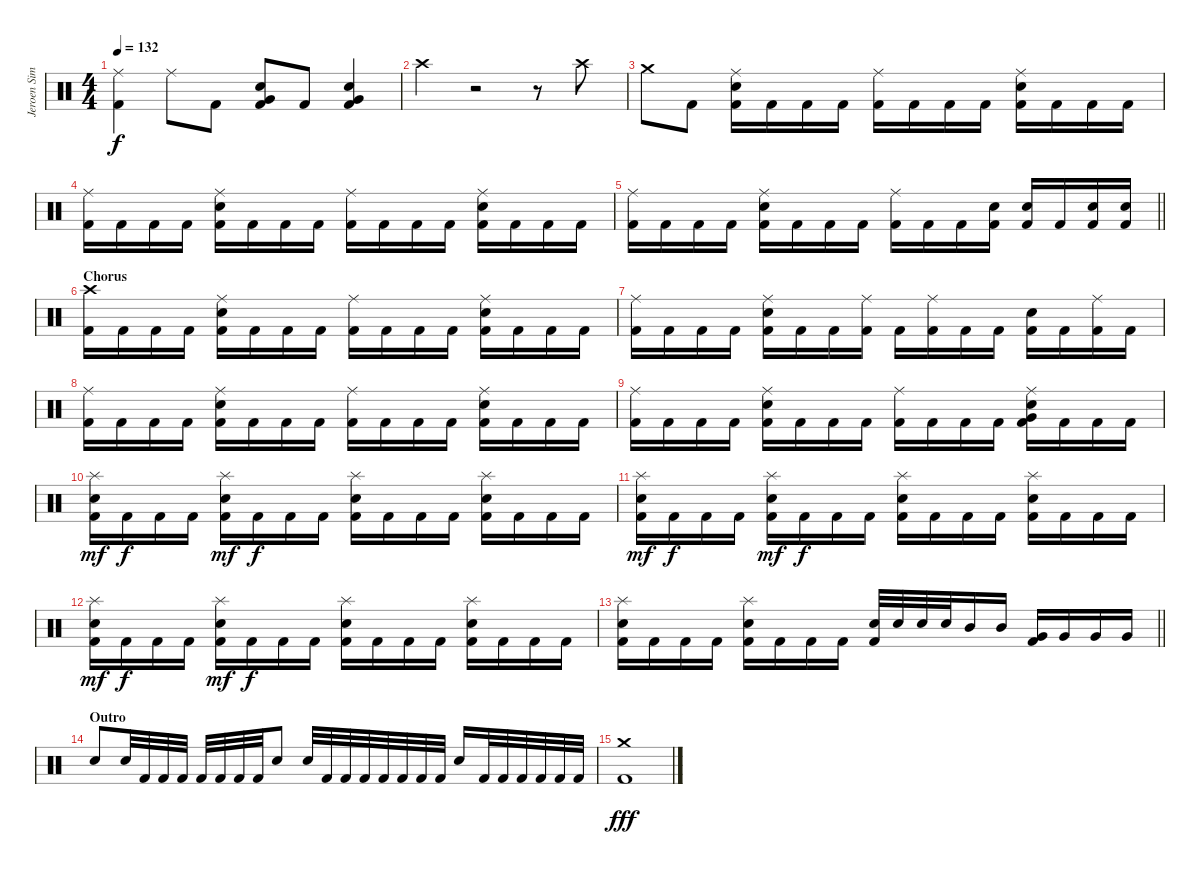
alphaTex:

\track ("Jeroen Simons" "Jeroen Sim") {instrument percussion}
\staff {score}
\articulation defaults
\ts (4 4)
\tempo 132
\clef neutral
\ks c
("Ride (middle)" "Kick (hit) 2").4{dy f} "Ride (middle)".8 "Kick (hit) 2".8 ("Very Low Tom (hit)" "Electric Snare (hit)" "Kick (hit) 2").8 "Kick (hit) 2".8 ("Very Low Tom (hit)" "Electric Snare (hit)" "Kick (hit) 2").4 |
"Crash high (hit)".4 r.2 r.8 "Crash high (hit)".8 |
"Crash medium (hit)".8 "Kick (hit) 2".8 ("Ride (middle)" "Electric Snare (hit)" "Kick (hit) 2").16 "Kick (hit) 2".16 "Kick (hit) 2".16 "Kick (hit) 2".16 ("Ride (middle)" "Kick (hit) 2").16 "Kick (hit) 2".16 "Kick (hit) 2".16 "Kick (hit) 2".16 ("Ride (middle)" "Electric Snare (hit)" "Kick (hit) 2").16 "Kick (hit) 2".16 "Kick (hit) 2".16 "Kick (hit) 2".16 |
("Ride (middle)" "Kick (hit) 2").16 "Kick (hit) 2".16 "Kick (hit) 2".16 "Kick (hit) 2".16 ("Ride (middle)" "Electric Snare (hit)" "Kick (hit) 2").16 "Kick (hit) 2".16 "Kick (hit) 2".16 "Kick (hit) 2".16 ("Ride (middle)" "Kick (hit) 2").16 "Kick (hit) 2".16 "Kick (hit) 2".16 "Kick (hit) 2".16 ("Ride (middle)" "Electric Snare (hit)" "Kick (hit) 2").16 "Kick (hit) 2".16 "Kick (hit) 2".16 "Kick (hit) 2".16 |
\barLineRight lightlight
("Ride (middle)" "Kick (hit) 2").16 "Kick (hit) 2".16 "Kick (hit) 2".16 "Kick (hit) 2".16 ("Ride (middle)" "Electric Snare (hit)" "Kick (hit) 2").16 "Kick (hit) 2".16 "Kick (hit) 2".16 "Kick (hit) 2".16 ("Ride (middle)" "Kick (hit) 2").16 "Kick (hit) 2".16 "Kick (hit) 2".16 ("Electric Snare (hit)" "Kick (hit) 2").16 ("Electric Snare (hit)" "Kick (hit) 2").16 "Kick (hit) 2".16 ("Electric Snare (hit)" "Kick (hit) 2").16 ("Electric Snare (hit)" "Kick (hit) 2").16 |
\section ("" "Chorus")
("Crash high (hit)" "Kick (hit) 2").16 "Kick (hit) 2".16 "Kick (hit) 2".16 "Kick (hit) 2".16 ("Ride (middle)" "Electric Snare (hit)" "Kick (hit) 2").16 "Kick (hit) 2".16 "Kick (hit) 2".16 "Kick (hit) 2".16 ("Ride (middle)" "Kick (hit) 2").16 "Kick (hit) 2".16 "Kick (hit) 2".16 "Kick (hit) 2".16 ("Ride (middle)" "Electric Snare (hit)" "Kick (hit) 2").16 "Kick (hit) 2".16 "Kick (hit) 2".16 "Kick (hit) 2".16 |
("Ride (middle)" "Kick (hit) 2").16 "Kick (hit) 2".16 "Kick (hit) 2".16 "Kick (hit) 2".16 ("Ride (middle)" "Electric Snare (hit)" "Kick (hit) 2").16 "Kick (hit) 2".16 "Kick (hit) 2".16 ("Ride (middle)" "Kick (hit) 2").16 "Kick (hit) 2".16 ("Ride (middle)" "Kick (hit) 2").16 "Kick (hit) 2".16 "Kick (hit) 2".16 ("Electric Snare (hit)" "Kick (hit) 2").16 "Kick (hit) 2".16 ("Ride (middle)" "Kick (hit) 2").16 "Kick (hit) 2".16 |
("Ride (middle)" "Kick (hit) 2").16 "Kick (hit) 2".16 "Kick (hit) 2".16 "Kick (hit) 2".16 ("Ride (middle)" "Electric Snare (hit)" "Kick (hit) 2").16 "Kick (hit) 2".16 "Kick (hit) 2".16 "Kick (hit) 2".16 ("Ride (middle)" "Kick (hit) 2").16 "Kick (hit) 2".16 "Kick (hit) 2".16 "Kick (hit) 2".16 ("Ride (middle)" "Electric Snare (hit)" "Kick (hit) 2").16 "Kick (hit) 2".16 "Kick (hit) 2".16 "Kick (hit) 2".16 |
("Ride (middle)" "Kick (hit) 2").16 "Kick (hit) 2".16 "Kick (hit) 2".16 "Kick (hit) 2".16 ("Ride (middle)" "Electric Snare (hit)" "Kick (hit) 2").16 "Kick (hit) 2".16 "Kick (hit) 2".16 "Kick (hit) 2".16 ("Ride (middle)" "Kick (hit) 2").16 "Kick (hit) 2".16 "Kick (hit) 2".16 "Kick (hit) 2".16 ("Ride (middle)" "Very Low Tom (hit)" "Electric Snare (hit)" "Kick (hit) 2").16 "Kick (hit) 2".16 "Kick (hit) 2".16 "Kick (hit) 2".16 |
("Splash (hit)" "Electric Snare (hit)" "Kick (hit) 2").16{dy mf} "Kick (hit) 2".16{dy f} "Kick (hit) 2".16 "Kick (hit) 2".16 ("Splash (hit)" "Electric Snare (hit)" "Kick (hit) 2").16{dy mf} "Kick (hit) 2".16{dy f} "Kick (hit) 2".16 "Kick (hit) 2".16 ("Splash (hit)" "Electric Snare (hit)" "Kick (hit) 2").16 "Kick (hit) 2".16 "Kick (hit) 2".16 "Kick (hit) 2".16 ("Splash (hit)" "Electric Snare (hit)" "Kick (hit) 2").16 "Kick (hit) 2".16 "Kick (hit) 2".16 "Kick (hit) 2".16 |
("Splash (hit)" "Electric Snare (hit)" "Kick (hit) 2").16{dy mf} "Kick (hit) 2".16{dy f} "Kick (hit) 2".16 "Kick (hit) 2".16 ("Splash (hit)" "Electric Snare (hit)" "Kick (hit) 2").16{dy mf} "Kick (hit) 2".16{dy f} "Kick (hit) 2".16 "Kick (hit) 2".16 ("Splash (hit)" "Electric Snare (hit)" "Kick (hit) 2").16 "Kick (hit) 2".16 "Kick (hit) 2".16 "Kick (hit) 2".16 ("Splash (hit)" "Electric Snare (hit)" "Kick (hit) 2").16 "Kick (hit) 2".16 "Kick (hit) 2".16 "Kick (hit) 2".16 |
("Splash (hit)" "Electric Snare (hit)" "Kick (hit) 2").16{dy mf} "Kick (hit) 2".16{dy f} "Kick (hit) 2".16 "Kick (hit) 2".16 ("Splash (hit)" "Electric Snare (hit)" "Kick (hit) 2").16{dy mf} "Kick (hit) 2".16{dy f} "Kick (hit) 2".16 "Kick (hit) 2".16 ("Splash (hit)" "Electric Snare (hit)" "Kick (hit) 2").16 "Kick (hit) 2".16 "Kick (hit) 2".16 "Kick (hit) 2".16 ("Splash (hit)" "Electric Snare (hit)" "Kick (hit) 2").16 "Kick (hit) 2".16 "Kick (hit) 2".16 "Kick (hit) 2".16 |
\barLineRight lightlight
("Splash (hit)" "Electric Snare (hit)" "Kick (hit) 2").16 "Kick (hit) 2".16 "Kick (hit) 2".16 "Kick (hit) 2".16 ("Splash (hit)" "Electric Snare (hit)" "Kick (hit) 2").16 "Kick (hit) 2".16 "Kick (hit) 2".16 "Kick (hit) 2".16 ("Electric Snare (hit)" "Kick (hit) 2").32 "Electric Snare (hit)".32 "Electric Snare (hit)".32 "Electric Snare (hit)".32 "Mid Tom (hit)".16 "Mid Tom (hit)".16 ("Very Low Tom (hit)" "Kick (hit) 2").16 "Very Low Tom (hit)".16 "Very Low Tom (hit)".16 "Very Low Tom (hit)".16 |
\section ("" "Outro")
"Electric Snare (hit)".8 "Electric Snare (hit)".32 "Kick (hit) 2".32 "Kick (hit) 2".32 "Kick (hit) 2".32 "Kick (hit) 2".32 "Kick (hit) 2".32 "Kick (hit) 2".32 "Kick (hit) 2".32 "Electric Snare (hit)".8 "Electric Snare (hit)".32 "Kick (hit) 2".32 "Kick (hit) 2".32 "Kick (hit) 2".32 "Kick (hit) 2".32 "Kick (hit) 2".32 "Kick (hit) 2".32 "Kick (hit) 2".32 "Electric Snare (hit)".16 "Kick (hit) 2".32 "Kick (hit) 2".32 "Kick (hit) 2".32 "Kick (hit) 2".32 "Kick (hit) 2".32 "Kick (hit) 2".32 |
("Crash medium (hit)" "Kick (hit) 2").1{dy fff}
